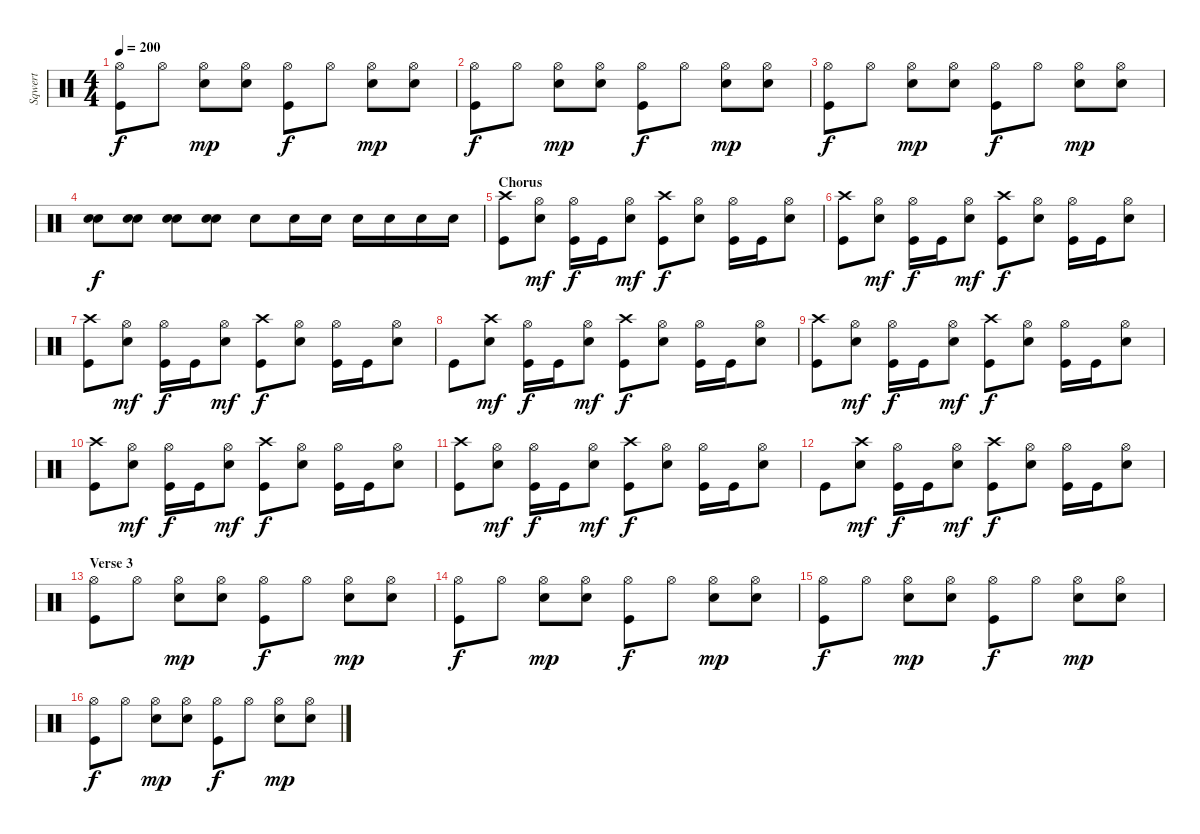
\track ("Sqwert" "Sqwert") {instrument percussion}
\staff {score}
\articulation defaults
\ts (4 4)
\tempo 200
\clef neutral
\ks c
("Hi-Hat (open)" "Kick (hit)").8{dy f} "Hi-Hat (open)".8 ("Hi-Hat (open)" "Snare (hit) 2").8{dy mp} ("Hi-Hat (open)" "Snare (hit) 2").8 ("Hi-Hat (open)" "Kick (hit)").8{dy f} "Hi-Hat (open)".8 ("Hi-Hat (open)" "Snare (hit) 2").8{dy mp} ("Hi-Hat (open)" "Snare (hit) 2").8 |
("Hi-Hat (open)" "Kick (hit)").8{dy f} "Hi-Hat (open)".8 ("Hi-Hat (open)" "Snare (hit) 2").8{dy mp} ("Hi-Hat (open)" "Snare (hit) 2").8 ("Hi-Hat (open)" "Kick (hit)").8{dy f} "Hi-Hat (open)".8 ("Hi-Hat (open)" "Snare (hit) 2").8{dy mp} ("Hi-Hat (open)" "Snare (hit) 2").8 |
("Hi-Hat (open)" "Kick (hit)").8{dy f} "Hi-Hat (open)".8 ("Hi-Hat (open)" "Snare (hit) 2").8{dy mp} ("Hi-Hat (open)" "Snare (hit) 2").8 ("Hi-Hat (open)" "Kick (hit)").8{dy f} "Hi-Hat (open)".8 ("Hi-Hat (open)" "Snare (hit) 2").8{dy mp} ("Hi-Hat (open)" "Snare (hit) 2").8 |
("Snare (hit) 2" "Snare (hit) 2").8{dy f} ("Snare (hit) 2" "Snare (hit) 2").8 ("Snare (hit) 2" "Snare (hit) 2").8 ("Snare (hit) 2" "Snare (hit) 2").8 "Snare (hit) 2".8 "Snare (hit) 2".16 "Snare (hit) 2".16 "Snare (hit) 2".16 "Snare (hit) 2".16 "Snare (hit) 2".16 "Snare (hit) 2".16 |
\section ("" "Chorus")
("Crash high (hit)" "Kick (hit)").8 ("Hi-Hat (open)" "Snare (hit) 2").8{dy mf} ("Hi-Hat (open)" "Kick (hit)").16{dy f} "Kick (hit)".16 ("Hi-Hat (open)" "Snare (hit) 2").8{dy mf} ("Crash high (hit)" "Kick (hit)").8{dy f} ("Hi-Hat (open)" "Snare (hit) 2").8 ("Hi-Hat (open)" "Kick (hit)").16 "Kick (hit)".16 ("Hi-Hat (open)" "Snare (hit) 2").8 |
("Crash high (hit)" "Kick (hit)").8 ("Hi-Hat (open)" "Snare (hit) 2").8{dy mf} ("Hi-Hat (open)" "Kick (hit)").16{dy f} "Kick (hit)".16 ("Hi-Hat (open)" "Snare (hit) 2").8{dy mf} ("Crash high (hit)" "Kick (hit)").8{dy f} ("Hi-Hat (open)" "Snare (hit) 2").8 ("Hi-Hat (open)" "Kick (hit)").16 "Kick (hit)".16 ("Hi-Hat (open)" "Snare (hit) 2").8 |
("Crash high (hit)" "Kick (hit)").8 ("Hi-Hat (open)" "Snare (hit) 2").8{dy mf} ("Hi-Hat (open)" "Kick (hit)").16{dy f} "Kick (hit)".16 ("Hi-Hat (open)" "Snare (hit) 2").8{dy mf} ("Crash high (hit)" "Kick (hit)").8{dy f} ("Hi-Hat (open)" "Snare (hit) 2").8 ("Hi-Hat (open)" "Kick (hit)").16 "Kick (hit)".16 ("Hi-Hat (open)" "Snare (hit) 2").8 |
"Kick (hit)".8 ("Crash high (hit)" "Snare (hit) 2").8{dy mf} ("Hi-Hat (open)" "Kick (hit)").16{dy f} "Kick (hit)".16 ("Hi-Hat (open)" "Snare (hit) 2").8{dy mf} ("Crash high (hit)" "Kick (hit)").8{dy f} ("Hi-Hat (open)" "Snare (hit) 2").8 ("Hi-Hat (open)" "Kick (hit)").16 "Kick (hit)".16 ("Hi-Hat (open)" "Snare (hit) 2").8 |
("Crash high (hit)" "Kick (hit)").8 ("Hi-Hat (open)" "Snare (hit) 2").8{dy mf} ("Hi-Hat (open)" "Kick (hit)").16{dy f} "Kick (hit)".16 ("Hi-Hat (open)" "Snare (hit) 2").8{dy mf} ("Crash high (hit)" "Kick (hit)").8{dy f} ("Hi-Hat (open)" "Snare (hit) 2").8 ("Hi-Hat (open)" "Kick (hit)").16 "Kick (hit)".16 ("Hi-Hat (open)" "Snare (hit) 2").8 |
("Crash high (hit)" "Kick (hit)").8 ("Hi-Hat (open)" "Snare (hit) 2").8{dy mf} ("Hi-Hat (open)" "Kick (hit)").16{dy f} "Kick (hit)".16 ("Hi-Hat (open)" "Snare (hit) 2").8{dy mf} ("Crash high (hit)" "Kick (hit)").8{dy f} ("Hi-Hat (open)" "Snare (hit) 2").8 ("Hi-Hat (open)" "Kick (hit)").16 "Kick (hit)".16 ("Hi-Hat (open)" "Snare (hit) 2").8 |
("Crash high (hit)" "Kick (hit)").8 ("Hi-Hat (open)" "Snare (hit) 2").8{dy mf} ("Hi-Hat (open)" "Kick (hit)").16{dy f} "Kick (hit)".16 ("Hi-Hat (open)" "Snare (hit) 2").8{dy mf} ("Crash high (hit)" "Kick (hit)").8{dy f} ("Hi-Hat (open)" "Snare (hit) 2").8 ("Hi-Hat (open)" "Kick (hit)").16 "Kick (hit)".16 ("Hi-Hat (open)" "Snare (hit) 2").8 |
"Kick (hit)".8 ("Crash high (hit)" "Snare (hit) 2").8{dy mf} ("Hi-Hat (open)" "Kick (hit)").16{dy f} "Kick (hit)".16 ("Hi-Hat (open)" "Snare (hit) 2").8{dy mf} ("Crash high (hit)" "Kick (hit)").8{dy f} ("Hi-Hat (open)" "Snare (hit) 2").8 ("Hi-Hat (open)" "Kick (hit)").16 "Kick (hit)".16 ("Hi-Hat (open)" "Snare (hit) 2").8 |
\section ("" "Verse 3")
("Hi-Hat (open)" "Kick (hit)").8 "Hi-Hat (open)".8 ("Hi-Hat (open)" "Snare (hit) 2").8{dy mp} ("Hi-Hat (open)" "Snare (hit) 2").8 ("Hi-Hat (open)" "Kick (hit)").8{dy f} "Hi-Hat (open)".8 ("Hi-Hat (open)" "Snare (hit) 2").8{dy mp} ("Hi-Hat (open)" "Snare (hit) 2").8 |
("Hi-Hat (open)" "Kick (hit)").8{dy f} "Hi-Hat (open)".8 ("Hi-Hat (open)" "Snare (hit) 2").8{dy mp} ("Hi-Hat (open)" "Snare (hit) 2").8 ("Hi-Hat (open)" "Kick (hit)").8{dy f} "Hi-Hat (open)".8 ("Hi-Hat (open)" "Snare (hit) 2").8{dy mp} ("Hi-Hat (open)" "Snare (hit) 2").8 |
("Hi-Hat (open)" "Kick (hit)").8{dy f} "Hi-Hat (open)".8 ("Hi-Hat (open)" "Snare (hit) 2").8{dy mp} ("Hi-Hat (open)" "Snare (hit) 2").8 ("Hi-Hat (open)" "Kick (hit)").8{dy f} "Hi-Hat (open)".8 ("Hi-Hat (open)" "Snare (hit) 2").8{dy mp} ("Hi-Hat (open)" "Snare (hit) 2").8 |
("Hi-Hat (open)" "Kick (hit)").8{dy f} "Hi-Hat (open)".8 ("Hi-Hat (open)" "Snare (hit) 2").8{dy mp} ("Hi-Hat (open)" "Snare (hit) 2").8 ("Hi-Hat (open)" "Kick (hit)").8{dy f} "Hi-Hat (open)".8 ("Hi-Hat (open)" "Snare (hit) 2").8{dy mp} ("Hi-Hat (open)" "Snare (hit) 2").8
